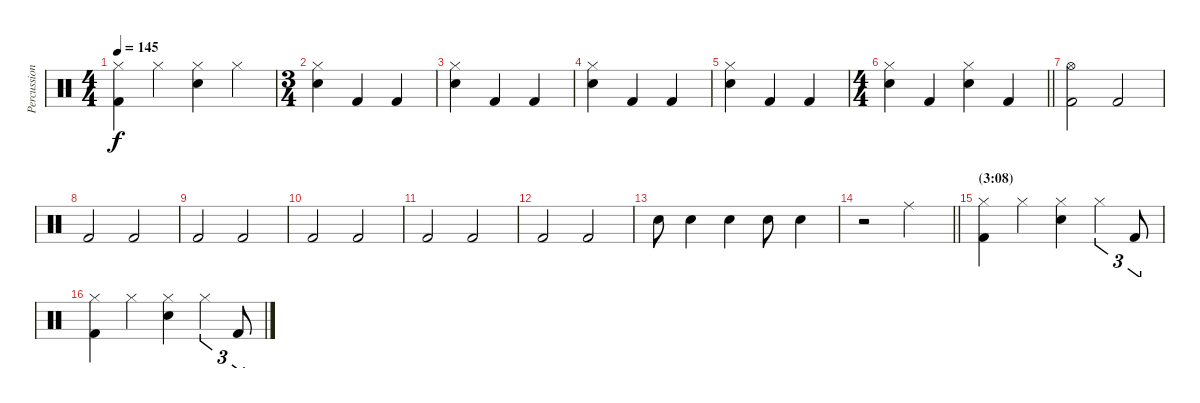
\track ("Percussion" "Percussion") {instrument percussion}
\staff {score}
\articulation defaults
\ts (4 4)
\tempo 145
\clef neutral
\ks c
("Hi-Hat (closed)" "Kick (hit) 2").4{dy f} "Hi-Hat (closed)".4 ("Hi-Hat (closed)" "Electric Snare (hit)").4 "Hi-Hat (closed)".4 |
\ts (3 4)
("Hi-Hat (closed)" "Electric Snare (hit)").4 "Kick (hit) 2".4 "Kick (hit) 2".4 |
("Hi-Hat (closed)" "Electric Snare (hit)").4 "Kick (hit) 2".4 "Kick (hit) 2".4 |
("Hi-Hat (closed)" "Electric Snare (hit)").4 "Kick (hit) 2".4 "Kick (hit) 2".4 |
("Hi-Hat (closed)" "Electric Snare (hit)").4 "Kick (hit) 2".4 "Kick (hit) 2".4 |
\ts (4 4)
\barLineRight lightlight
("Hi-Hat (closed)" "Electric Snare (hit)").4 "Kick (hit) 2".4 ("Hi-Hat (closed)" "Electric Snare (hit)").4 "Kick (hit) 2".4 |
("Hi-Hat (open)" "Kick (hit) 2").2 "Kick (hit) 2".2 |
"Kick (hit) 2".2 "Kick (hit) 2".2 |
"Kick (hit) 2".2 "Kick (hit) 2".2 |
"Kick (hit) 2".2 "Kick (hit) 2".2 |
"Kick (hit) 2".2 "Kick (hit) 2".2 |
"Kick (hit) 2".2 "Kick (hit) 2".2 |
"Electric Snare (hit)".8 "Electric Snare (hit)".4 "Electric Snare (hit)".4 "Electric Snare (hit)".8 "Electric Snare (hit)".4 |
\barLineRight lightlight
r.2 "Ride (middle)".2 |
\section ("" "(3:08)")
("Hi-Hat (closed)" "Kick (hit) 2").4 "Hi-Hat (closed)".4 ("Hi-Hat (closed)" "Electric Snare (hit)").4 "Hi-Hat (closed)".4{tu (3 2)} "Kick (hit) 2".8{tu (3 2)} |
("Hi-Hat (closed)" "Kick (hit) 2").4 "Hi-Hat (closed)".4 ("Hi-Hat (closed)" "Electric Snare (hit)").4 "Hi-Hat (closed)".4{tu (3 2)} "Kick (hit) 2".8{tu (3 2)}
